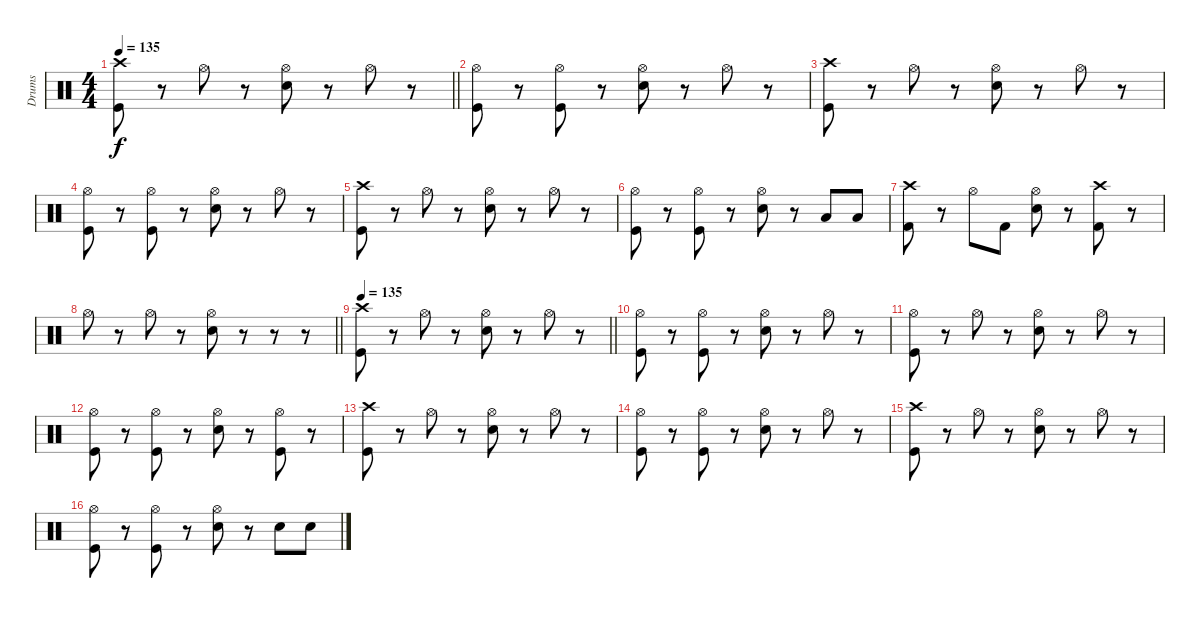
\track ("Drums" "Drums") {instrument percussion}
\staff {score}
\articulation defaults
\ts (4 4)
\tempo 135
\clef neutral
\barLineRight lightlight
\ks c
("Crash high (hit)" "Kick (hit)").8{dy f} r.8 "Hi-Hat (open)".8 r.8 ("Hi-Hat (open)" "Snare (hit) 2").8 r.8 "Hi-Hat (open)".8 r.8 |
("Hi-Hat (open)" "Kick (hit)").8 r.8 ("Hi-Hat (open)" "Kick (hit)").8 r.8 ("Hi-Hat (open)" "Snare (hit) 2").8 r.8 "Hi-Hat (open)".8 r.8 |
("Crash high (hit)" "Kick (hit)").8 r.8 "Hi-Hat (open)".8 r.8 ("Hi-Hat (open)" "Snare (hit) 2").8 r.8 "Hi-Hat (open)".8 r.8 |
("Hi-Hat (open)" "Kick (hit)").8 r.8 ("Hi-Hat (open)" "Kick (hit)").8 r.8 ("Hi-Hat (open)" "Snare (hit) 2").8 r.8 "Hi-Hat (open)".8 r.8 |
("Crash high (hit)" "Kick (hit)").8 r.8 "Hi-Hat (open)".8 r.8 ("Hi-Hat (open)" "Snare (hit) 2").8 r.8 "Hi-Hat (open)".8 r.8 |
("Hi-Hat (open)" "Kick (hit)").8 r.8 ("Hi-Hat (open)" "Kick (hit)").8 r.8 ("Hi-Hat (open)" "Snare (hit) 2").8 r.8 "Low Tom (hit)".8 "Low Tom (hit)".8 |
("Crash high (hit)" "Kick (hit) 2").8 r.8 "Hi-Hat (open)".8 "Kick (hit) 2".8 ("Hi-Hat (open)" "Snare (hit) 2").8 r.8 ("Crash high (hit)" "Kick (hit) 2").8 r.8 |
\barLineRight lightlight "Hi-Hat (open)".8
r.8 "Hi-Hat (open)".8 r.8 ("Hi-Hat (open)" "Snare (hit) 2").8 r.8 r.8 r.8 |
\tempo 135
\barLineRight lightlight
("Crash high (hit)" "Kick (hit)").8 r.8 "Hi-Hat (open)".8 r.8 ("Hi-Hat (open)" "Snare (hit) 2").8 r.8 "Hi-Hat (open)".8 r.8 |
("Hi-Hat (open)" "Kick (hit)").8 r.8 ("Hi-Hat (open)" "Kick (hit)").8 r.8 ("Hi-Hat (open)" "Snare (hit) 2").8 r.8 "Hi-Hat (open)".8 r.8 |
("Hi-Hat (open)" "Kick (hit)").8 r.8 "Hi-Hat (open)".8 r.8 ("Hi-Hat (open)" "Snare (hit) 2").8 r.8 "Hi-Hat (open)".8 r.8 |
("Hi-Hat (open)" "Kick (hit)").8 r.8 ("Hi-Hat (open)" "Kick (hit)").8 r.8 ("Hi-Hat (open)" "Snare (hit) 2").8 r.8 ("Hi-Hat (open)" "Kick (hit)").8 r.8 |
("Crash high (hit)" "Kick (hit)").8 r.8 "Hi-Hat (open)".8 r.8 ("Hi-Hat (open)" "Snare (hit) 2").8 r.8 "Hi-Hat (open)".8 r.8 |
("Hi-Hat (open)" "Kick (hit)").8 r.8 ("Hi-Hat (open)" "Kick (hit)").8 r.8 ("Hi-Hat (open)" "Snare (hit) 2").8 r.8 "Hi-Hat (open)".8 r.8 |
("Crash high (hit)" "Kick (hit)").8 r.8 "Hi-Hat (open)".8 r.8 ("Hi-Hat (open)" "Snare (hit) 2").8 r.8 "Hi-Hat (open)".8 r.8 |
("Hi-Hat (open)" "Kick (hit)").8 r.8 ("Hi-Hat (open)" "Kick (hit)").8 r.8 ("Hi-Hat (open)" "Snare (hit) 2").8 r.8 "Snare (hit) 2".8 "Snare (hit) 2".8
